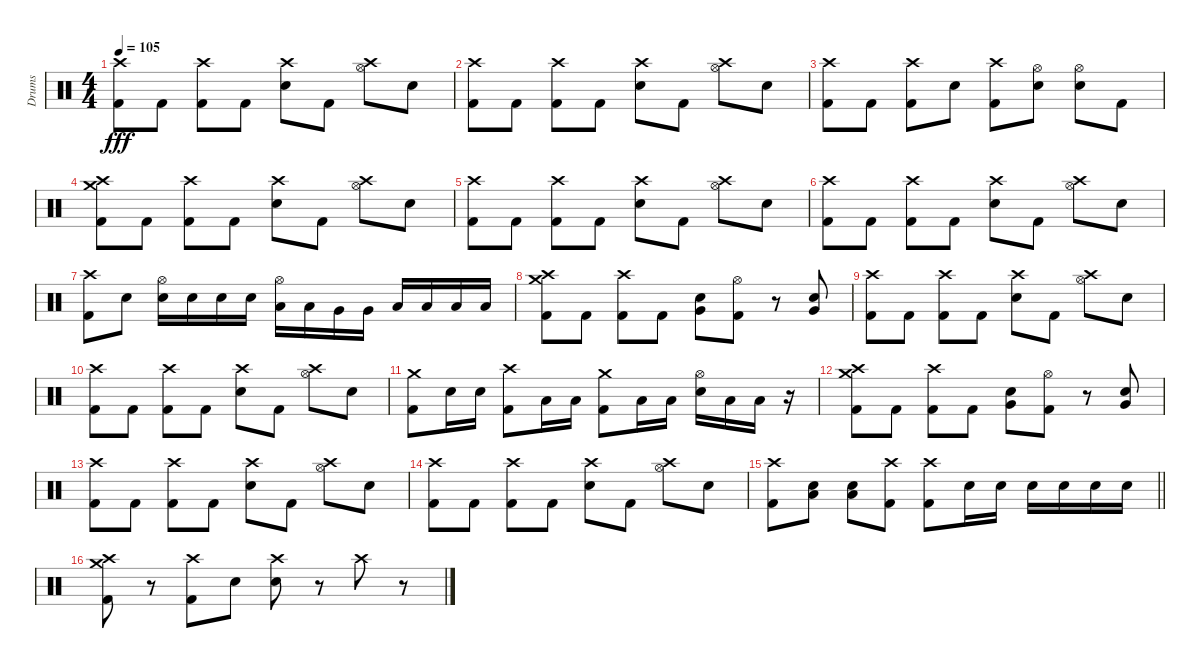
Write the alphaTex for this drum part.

\track ("Drums" "Drums") {instrument percussion}
\staff {score}
\articulation defaults
\ts (4 4)
\tempo 105
\clef neutral
\ks c
("Crash high (hit)" "Kick (hit) 2").8{dy fff} "Kick (hit) 2".8 ("Crash high (hit)" "Kick (hit) 2").8 "Kick (hit) 2".8 ("Crash high (hit)" "Electric Snare (hit)").8 "Kick (hit) 2".8 ("Crash high (hit)" "Hi-Hat (open)").8 "Electric Snare (hit)".8 |
("Crash high (hit)" "Kick (hit) 2").8 "Kick (hit) 2".8 ("Crash high (hit)" "Kick (hit) 2").8 "Kick (hit) 2".8 ("Crash high (hit)" "Electric Snare (hit)").8 "Kick (hit) 2".8 ("Crash high (hit)" "Hi-Hat (open)").8 "Electric Snare (hit)".8 |
("Crash high (hit)" "Kick (hit) 2").8 "Kick (hit) 2".8 ("Crash high (hit)" "Kick (hit) 2").8 "Electric Snare (hit)".8 ("Crash high (hit)" "Kick (hit) 2").8 ("Hi-Hat (open)" "Electric Snare (hit)").8 ("Hi-Hat (open)" "Electric Snare (hit)").8 "Kick (hit) 2".8 |
("Crash medium (hit)" "Crash high (hit)" "Kick (hit) 2").8 "Kick (hit) 2".8 ("Crash high (hit)" "Kick (hit) 2").8 "Kick (hit) 2".8 ("Crash high (hit)" "Electric Snare (hit)").8 "Kick (hit) 2".8 ("Crash high (hit)" "Hi-Hat (open)").8 "Electric Snare (hit)".8 |
("Crash high (hit)" "Kick (hit) 2").8 "Kick (hit) 2".8 ("Crash high (hit)" "Kick (hit) 2").8 "Kick (hit) 2".8 ("Crash high (hit)" "Electric Snare (hit)").8 "Kick (hit) 2".8 ("Crash high (hit)" "Hi-Hat (open)").8 "Electric Snare (hit)".8 |
("Crash high (hit)" "Kick (hit) 2").8 "Kick (hit) 2".8 ("Crash high (hit)" "Kick (hit) 2").8 "Kick (hit) 2".8 ("Crash high (hit)" "Electric Snare (hit)").8 "Kick (hit) 2".8 ("Crash high (hit)" "Hi-Hat (open)").8 "Electric Snare (hit)".8 |
("Crash high (hit)" "Kick (hit) 2").8 "Electric Snare (hit)".8 ("Hi-Hat (open)" "Electric Snare (hit)").16 "Electric Snare (hit)".16 "Electric Snare (hit)".16 "Electric Snare (hit)".16 ("Hi-Hat (open)" "Low Tom (hit)").16 "Low Tom (hit)".16 "Very Low Tom (hit)".16 "Very Low Tom (hit)".16 "Low Floor Tom (hit)".16 "Low Floor Tom (hit)".16 "Low Floor Tom (hit)".16 "Low Floor Tom (hit)".16 |
("Crash medium (hit)" "Crash high (hit)" "Kick (hit) 2").8 "Kick (hit) 2".8 ("Crash high (hit)" "Kick (hit) 2").8 "Kick (hit) 2".8 ("Electric Snare (hit)" "Very Low Tom (hit)").8 ("Hi-Hat (open)" "Kick (hit) 2").8 r.8 ("Electric Snare (hit)" "Very Low Tom (hit)").8 |
("Crash high (hit)" "Kick (hit) 2").8 "Kick (hit) 2".8 ("Crash high (hit)" "Kick (hit) 2").8 "Kick (hit) 2".8 ("Crash high (hit)" "Electric Snare (hit)").8 "Kick (hit) 2".8 ("Crash high (hit)" "Hi-Hat (open)").8 "Electric Snare (hit)".8 |
("Crash high (hit)" "Kick (hit) 2").8 "Kick (hit) 2".8 ("Crash high (hit)" "Kick (hit) 2").8 "Kick (hit) 2".8 ("Crash high (hit)" "Electric Snare (hit)").8 "Kick (hit) 2".8 ("Crash high (hit)" "Hi-Hat (open)").8 "Electric Snare (hit)".8 |
("Crash medium (hit)" "Kick (hit) 2").8 "Electric Snare (hit)".16 "Electric Snare (hit)".16 ("Crash high (hit)" "Kick (hit) 2").8 "Low Tom (hit)".16 "Low Tom (hit)".16 ("Crash medium (hit)" "Kick (hit) 2").8 "Low Tom (hit)".16 "Low Tom (hit)".16 ("Hi-Hat (open)" "Electric Snare (hit)").16 "Low Floor Tom (hit)".16 "Low Floor Tom (hit)".16 r.16 |
("Crash medium (hit)" "Crash high (hit)" "Kick (hit) 2").8 "Kick (hit) 2".8 ("Crash high (hit)" "Kick (hit) 2").8 "Kick (hit) 2".8 ("Electric Snare (hit)" "Very Low Tom (hit)").8 ("Hi-Hat (open)" "Kick (hit) 2").8 r.8 ("Electric Snare (hit)" "Very Low Tom (hit)").8 |
("Crash high (hit)" "Kick (hit) 2").8 "Kick (hit) 2".8 ("Crash high (hit)" "Kick (hit) 2").8 "Kick (hit) 2".8 ("Crash high (hit)" "Electric Snare (hit)").8 "Kick (hit) 2".8 ("Crash high (hit)" "Hi-Hat (open)").8 "Electric Snare (hit)".8 |
("Crash high (hit)" "Kick (hit) 2").8 "Kick (hit) 2".8 ("Crash high (hit)" "Kick (hit) 2").8 "Kick (hit) 2".8 ("Crash high (hit)" "Electric Snare (hit)").8 "Kick (hit) 2".8 ("Crash high (hit)" "Hi-Hat (open)").8 "Electric Snare (hit)".8 |
\barLineRight lightlight
("Crash high (hit)" "Kick (hit) 2").8 ("Low Floor Tom (hit)" "Electric Snare (hit)").8 ("Low Floor Tom (hit)" "Electric Snare (hit)").8 ("Crash high (hit)" "Kick (hit) 2").8 ("Crash high (hit)" "Kick (hit) 2").8 "Electric Snare (hit)".16 "Electric Snare (hit)".16 "Electric Snare (hit)".16 "Electric Snare (hit)".16 "Electric Snare (hit)".16 "Electric Snare (hit)".16 |
\section ("" "")
("Crash medium (hit)" "Crash high (hit)" "Kick (hit) 2").8 r.8 ("Crash high (hit)" "Kick (hit) 2").8 "Electric Snare (hit)".8 ("Crash high (hit)" "Electric Snare (hit)").8 r.8 "Crash high (hit)".8 r.8
